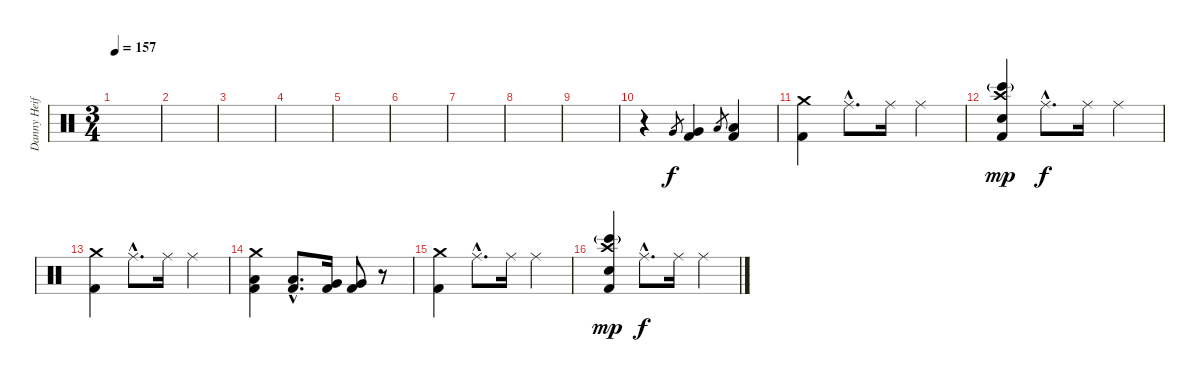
\track ("Danny Heifetz - Drums" "Danny Heif") {instrument percussion}
\staff {score}
\articulation defaults
\ts (3 4)
\tempo 157
\clef neutral
\ks c
|
|
|
|
|
|
|
|
|
r.4{volume 13} "Very Low Tom (hit)".8{gr dy f} ("Very Low Tom (hit)" "Kick (hit) 2").4 "Low Tom (hit)".8{gr} ("Low Tom (hit)" "Kick (hit) 2").4 |
("Crash medium (hit)" "Kick (hit) 2").4 "Ride (middle)"{hac}.8{d} "Ride (middle)".16 "Ride (middle)".4 |
("Crash high (hit)" "Bongo High (hit)"{g} "Electric Snare (hit)" "Kick (hit) 2").4{dy mp} "Ride (middle)"{hac}.8{d dy f} "Ride (middle)".16 "Ride (middle)".4 |
("Crash medium (hit)" "Kick (hit) 2").4 "Ride (middle)"{hac}.8{d} "Ride (middle)".16 "Ride (middle)".4 |
("Crash medium (hit)" "Low Tom (hit)" "Kick (hit) 2").4 ("Low Floor Tom (hit)"{hac} "Kick (hit) 2"{hac}).8{d} ("Very Low Tom (hit)" "Kick (hit) 2").16 ("Very Low Tom (hit)" "Kick (hit) 2").8 r.8 |
("Crash medium (hit)" "Kick (hit) 2").4 "Ride (middle)"{hac}.8{d} "Ride (middle)".16 "Ride (middle)".4 |
("Crash high (hit)" "Bongo High (hit)"{g} "Electric Snare (hit)" "Kick (hit) 2").4{dy mp} "Ride (middle)"{hac}.8{d dy f} "Ride (middle)".16 "Ride (middle)".4
